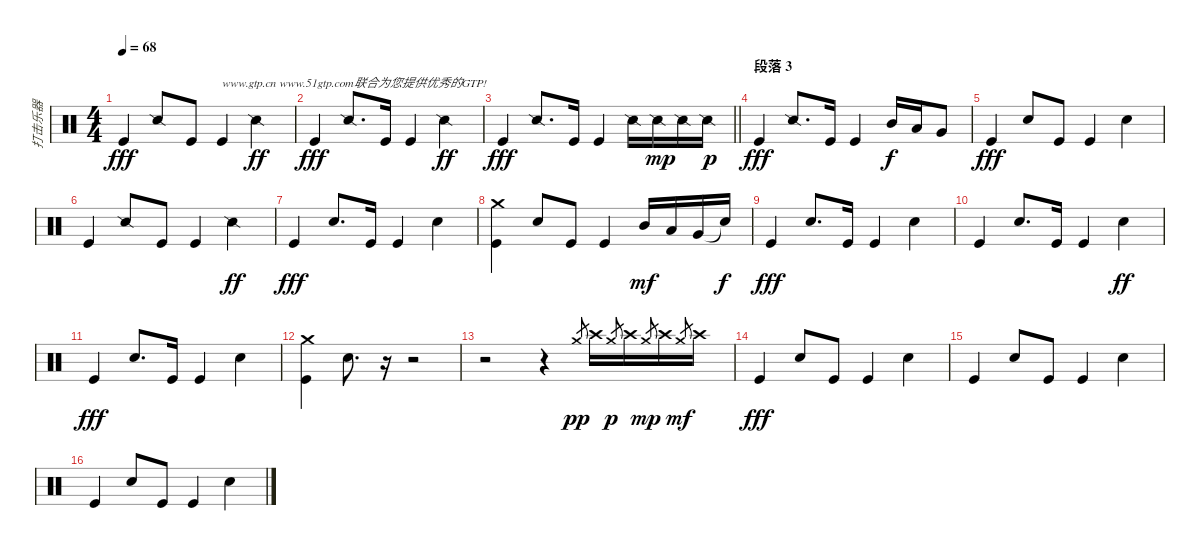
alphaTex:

\track ("打击乐器" "打击乐器") {instrument percussion}
\staff {score}
\articulation defaults
\ts (4 4)
\tempo 68
\clef neutral
\ks c "Kick (hit)".4{dy fff} "Snare (side stick) 2".8 "Kick (hit)".8 "Kick (hit)".4{txt "www.gtp.cn www.51gtp.com联合为您提供优秀的GTP!"} "Snare (side stick) 2".4{dy ff}
|
"Kick (hit)".4{dy fff} "Snare (side stick) 2".8{d} "Kick (hit)".16 "Kick (hit)".4 "Snare (side stick) 2".4{dy ff} |
\barLineRight lightlight "Kick (hit)".4{dy fff} "Snare (side stick) 2".8{d} "Kick (hit)".16 "Kick (hit)".4 "Snare (side stick) 2".16 "Snare (side stick) 2".16{dy mp} "Snare (side stick) 2".16 "Snare (side stick) 2".16{dy p}
|
\section ("" "段落 3")
"Kick (hit)".4{dy fff} "Snare (side stick) 2".8{d} "Kick (hit)".16 "Kick (hit)".4 "Mid Tom (hit)".16{dy f} "Low Tom (hit)".16 "Very Low Tom (hit)".8 |
"Kick (hit)".4{dy fff} "Electric Snare (hit)".8 "Kick (hit)".8 "Kick (hit)".4 "Electric Snare (hit)".4 |
"Kick (hit)".4 "Snare (side stick) 2".8 "Kick (hit)".8 "Kick (hit)".4 "Snare (side stick) 2".4{dy ff} |
"Kick (hit)".4{dy fff} "Electric Snare (hit)".8{d} "Kick (hit)".16 "Kick (hit)".4 "Electric Snare (hit)".4 |
("Crash medium (hit)" "Kick (hit)").4 "Electric Snare (hit)".8 "Kick (hit)".8 "Kick (hit)".4 "Mid Tom (hit)".16{dy mf} "Low Tom (hit)".16 "Very Low Tom (hit)".16 "Snare (hit)"{t}.16{dy f} |
"Kick (hit)".4{dy fff} "Electric Snare (hit)".8{d} "Kick (hit)".16 "Kick (hit)".4 "Electric Snare (hit)".4 |
"Kick (hit)".4 "Electric Snare (hit)".8{d} "Kick (hit)".16 "Kick (hit)".4 "Electric Snare (hit)".4{dy ff} |
"Kick (hit)".4{dy fff} "Electric Snare (hit)".8{d} "Kick (hit)".16 "Kick (hit)".4 "Electric Snare (hit)".4 |
("Crash medium (hit)" "Kick (hit)").4 "Electric Snare (hit)".8{d} r.16 r.2 |
r.2 r.4 "Crash medium (hit)"{h}.8{gr dy pp} "Crash high (hit)".16 "Crash medium (hit)"{h}.8{gr dy p} "Crash high (hit)".16 "Crash medium (hit)"{h}.8{gr dy mp} "Crash high (hit)".16 "Crash medium (hit)"{h}.8{gr dy mf} "Crash high (hit)".16 |
"Kick (hit)".4{dy fff} "Electric Snare (hit)".8 "Kick (hit)".8 "Kick (hit)".4 "Electric Snare (hit)".4 |
"Kick (hit)".4 "Electric Snare (hit)".8 "Kick (hit)".8 "Kick (hit)".4 "Electric Snare (hit)".4 |
"Kick (hit)".4 "Electric Snare (hit)".8 "Kick (hit)".8 "Kick (hit)".4 "Electric Snare (hit)".4
